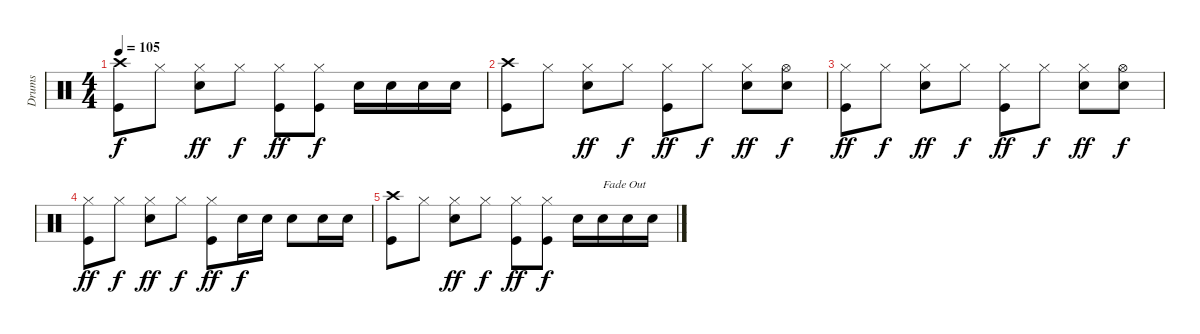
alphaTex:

\track ("Drums" "Drums") {instrument percussion}
\staff {score}
\articulation defaults
\ts (4 4)
\tempo 105
\clef neutral
\ks c
("Crash high (hit)" "Kick (hit)").8{dy f} "Hi-Hat (closed)".8 ("Hi-Hat (closed)" "Snare (hit) 2").8{dy ff} "Hi-Hat (closed)".8{dy f} ("Hi-Hat (closed)" "Kick (hit)").8{dy ff} ("Hi-Hat (closed)" "Kick (hit)").8{dy f} "Snare (hit) 2".16 "Snare (hit) 2".16 "Snare (hit) 2".16 "Snare (hit) 2".16 |
("Crash high (hit)" "Kick (hit)").8 "Hi-Hat (closed)".8 ("Hi-Hat (closed)" "Snare (hit) 2").8{dy ff} "Hi-Hat (closed)".8{dy f} ("Hi-Hat (closed)" "Kick (hit)").8{dy ff} "Hi-Hat (closed)".8{dy f} ("Hi-Hat (closed)" "Snare (hit) 2").8{dy ff} ("Hi-Hat (open)" "Snare (hit) 2").8{dy f} |
("Hi-Hat (closed)" "Kick (hit)").8{dy ff} "Hi-Hat (closed)".8{dy f} ("Hi-Hat (closed)" "Snare (hit) 2").8{dy ff} "Hi-Hat (closed)".8{dy f} ("Hi-Hat (closed)" "Kick (hit)").8{dy ff} "Hi-Hat (closed)".8{dy f} ("Hi-Hat (closed)" "Snare (hit) 2").8{dy ff} ("Hi-Hat (open)" "Snare (hit) 2").8{dy f} |
("Hi-Hat (closed)" "Kick (hit)").8{dy ff} "Hi-Hat (closed)".8{dy f} ("Hi-Hat (closed)" "Snare (hit) 2").8{dy ff} "Hi-Hat (closed)".8{dy f} ("Hi-Hat (closed)" "Kick (hit)").8{dy ff} "Snare (hit) 2".16{dy f} "Snare (hit) 2".16 "Snare (hit) 2".8 "Snare (hit) 2".16 "Snare (hit) 2".16 |
("Crash high (hit)" "Kick (hit)").8 "Hi-Hat (closed)".8 ("Hi-Hat (closed)" "Snare (hit) 2").8{dy ff} "Hi-Hat (closed)".8{dy f} ("Hi-Hat (closed)" "Kick (hit)").8{dy ff} ("Hi-Hat (closed)" "Kick (hit)").8{dy f} "Snare (hit) 2".16 "Snare (hit) 2".16{txt "Fade Out"} "Snare (hit) 2".16 "Snare (hit) 2".16
